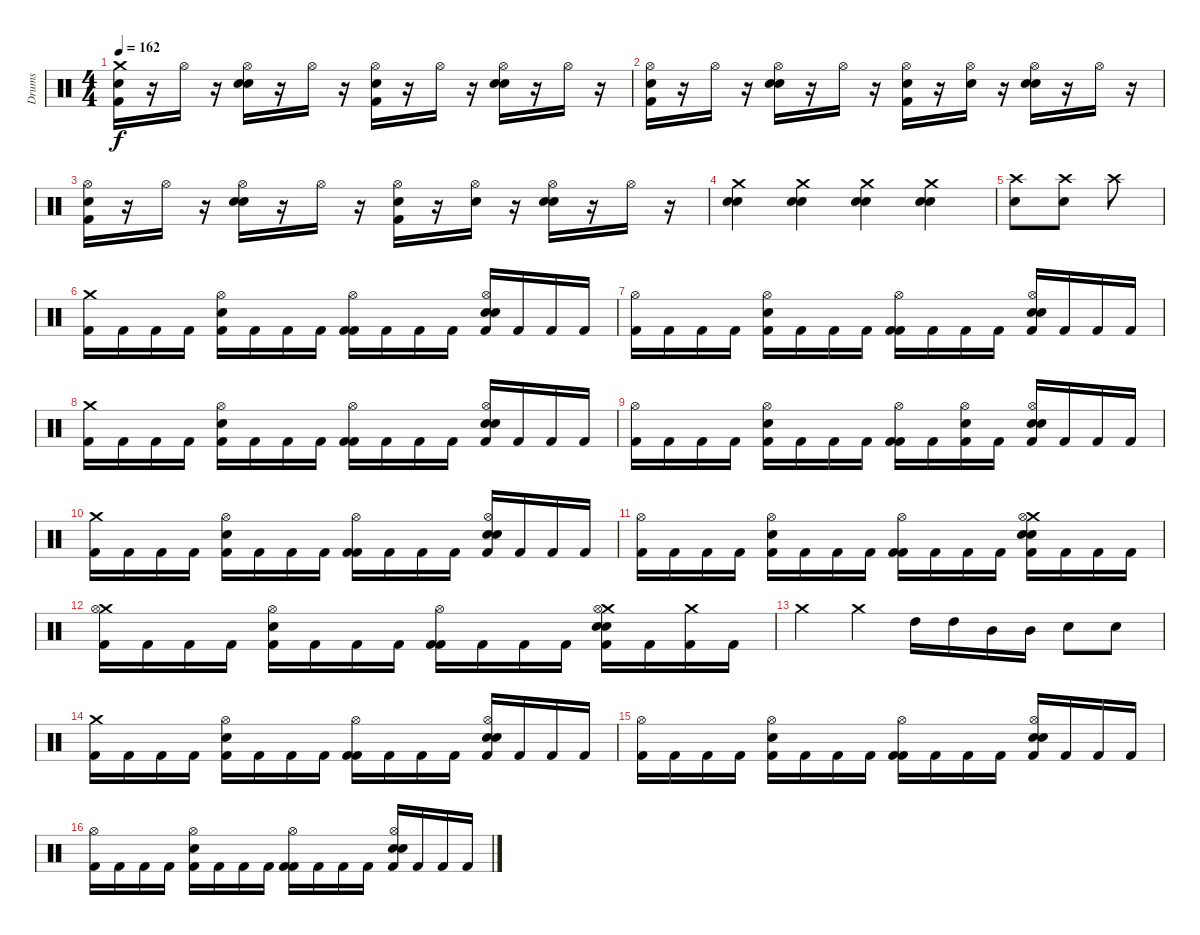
\track ("Drums" "Drums") {instrument percussion}
\staff {score}
\articulation defaults
\ts (4 4)
\tempo 162
\clef neutral
\ks c
("Crash medium (hit)" "Electric Snare (hit)" "Kick (hit) 2").16{dy f} r.16 "Hi-Hat (open)".16 r.16 ("Electric Snare (hit)" "Hi-Hat (open)" "Snare (hit) 2").16 r.16 "Hi-Hat (open)".16 r.16 ("Electric Snare (hit)" "Hi-Hat (open)" "Kick (hit) 2").16 r.16 "Hi-Hat (open)".16 r.16 ("Electric Snare (hit)" "Hi-Hat (open)" "Snare (hit) 2").16 r.16 "Hi-Hat (open)".16 r.16 |
("Electric Snare (hit)" "Hi-Hat (open)" "Kick (hit) 2").16 r.16 "Hi-Hat (open)".16 r.16 ("Electric Snare (hit)" "Hi-Hat (open)" "Snare (hit) 2").16 r.16 "Hi-Hat (open)".16 r.16 ("Electric Snare (hit)" "Hi-Hat (open)" "Kick (hit) 2").16 r.16 ("Electric Snare (hit)" "Hi-Hat (open)").16 r.16 ("Electric Snare (hit)" "Hi-Hat (open)" "Snare (hit) 2").16 r.16 "Hi-Hat (open)".16 r.16 |
("Electric Snare (hit)" "Hi-Hat (open)" "Kick (hit) 2").16 r.16 "Hi-Hat (open)".16 r.16 ("Electric Snare (hit)" "Hi-Hat (open)" "Snare (hit) 2").16 r.16 "Hi-Hat (open)".16 r.16 ("Electric Snare (hit)" "Hi-Hat (open)" "Kick (hit) 2").16 r.16 ("Hi-Hat (open)" "Electric Snare (hit)").16 r.16 ("Electric Snare (hit)" "Hi-Hat (open)" "Snare (hit) 2").16 r.16 "Hi-Hat (open)".16 r.16 |
("Crash medium (hit)" "Electric Snare (hit)" "Electric Snare (hit)").4 ("Crash medium (hit)" "Electric Snare (hit)" "Electric Snare (hit)").4 ("Crash medium (hit)" "Electric Snare (hit)" "Electric Snare (hit)").4 ("Crash medium (hit)" "Electric Snare (hit)" "Electric Snare (hit)").4 |
("Crash high (hit)" "Electric Snare (hit)").8 ("Crash high (hit)" "Electric Snare (hit)").8 "Crash high (hit)".8 |
("Crash medium (hit)" "Kick (hit) 2").16 "Kick (hit) 2".16 "Kick (hit) 2".16 "Kick (hit) 2".16 ("Kick (hit) 2" "Electric Snare (hit)" "Hi-Hat (open)").16 "Kick (hit) 2".16 "Kick (hit) 2".16 "Kick (hit) 2".16 ("Kick (hit) 2" "Hi-Hat (open)" "Kick (hit) 2").16 "Kick (hit) 2".16 "Kick (hit) 2".16 "Kick (hit) 2".16 ("Kick (hit) 2" "Electric Snare (hit)" "Hi-Hat (open)" "Snare (hit) 2").16 "Kick (hit) 2".16 "Kick (hit) 2".16 "Kick (hit) 2".16 |
("Hi-Hat (open)" "Kick (hit) 2").16 "Kick (hit) 2".16 "Kick (hit) 2".16 "Kick (hit) 2".16 ("Kick (hit) 2" "Electric Snare (hit)" "Hi-Hat (open)").16 "Kick (hit) 2".16 "Kick (hit) 2".16 "Kick (hit) 2".16 ("Kick (hit) 2" "Hi-Hat (open)" "Kick (hit) 2").16 "Kick (hit) 2".16 "Kick (hit) 2".16 "Kick (hit) 2".16 ("Kick (hit) 2" "Electric Snare (hit)" "Hi-Hat (open)" "Snare (hit) 2").16 "Kick (hit) 2".16 "Kick (hit) 2".16 "Kick (hit) 2".16 |
("Crash medium (hit)" "Kick (hit) 2").16 "Kick (hit) 2".16 "Kick (hit) 2".16 "Kick (hit) 2".16 ("Kick (hit) 2" "Electric Snare (hit)" "Hi-Hat (open)").16 "Kick (hit) 2".16 "Kick (hit) 2".16 "Kick (hit) 2".16 ("Kick (hit) 2" "Hi-Hat (open)" "Kick (hit) 2").16 "Kick (hit) 2".16 "Kick (hit) 2".16 "Kick (hit) 2".16 ("Kick (hit) 2" "Electric Snare (hit)" "Hi-Hat (open)" "Snare (hit) 2").16 "Kick (hit) 2".16 "Kick (hit) 2".16 "Kick (hit) 2".16 |
("Hi-Hat (open)" "Kick (hit) 2").16 "Kick (hit) 2".16 "Kick (hit) 2".16 "Kick (hit) 2".16 ("Kick (hit) 2" "Electric Snare (hit)" "Hi-Hat (open)").16 "Kick (hit) 2".16 "Kick (hit) 2".16 "Kick (hit) 2".16 ("Kick (hit) 2" "Hi-Hat (open)" "Kick (hit) 2").16 "Kick (hit) 2".16 ("Kick (hit) 2" "Electric Snare (hit)" "Hi-Hat (open)").16 "Kick (hit) 2".16 ("Kick (hit) 2" "Electric Snare (hit)" "Hi-Hat (open)" "Snare (hit) 2").16 "Kick (hit) 2".16 "Kick (hit) 2".16 "Kick (hit) 2".16 |
("Crash medium (hit)" "Kick (hit) 2").16 "Kick (hit) 2".16 "Kick (hit) 2".16 "Kick (hit) 2".16 ("Kick (hit) 2" "Electric Snare (hit)" "Hi-Hat (open)").16 "Kick (hit) 2".16 "Kick (hit) 2".16 "Kick (hit) 2".16 ("Kick (hit) 2" "Hi-Hat (open)" "Kick (hit) 2").16 "Kick (hit) 2".16 "Kick (hit) 2".16 "Kick (hit) 2".16 ("Kick (hit) 2" "Electric Snare (hit)" "Hi-Hat (open)" "Snare (hit) 2").16 "Kick (hit) 2".16 "Kick (hit) 2".16 "Kick (hit) 2".16 |
("Hi-Hat (open)" "Kick (hit) 2").16 "Kick (hit) 2".16 "Kick (hit) 2".16 "Kick (hit) 2".16 ("Kick (hit) 2" "Electric Snare (hit)" "Hi-Hat (open)").16 "Kick (hit) 2".16 "Kick (hit) 2".16 "Kick (hit) 2".16 ("Kick (hit) 2" "Hi-Hat (open)" "Kick (hit) 2").16 "Kick (hit) 2".16 "Kick (hit) 2".16 "Kick (hit) 2".16 ("Crash medium (hit)" "Kick (hit) 2" "Electric Snare (hit)" "Hi-Hat (open)" "Snare (hit) 2").16 "Kick (hit) 2".16 "Kick (hit) 2".16 "Kick (hit) 2".16 |
("Crash medium (hit)" "Hi-Hat (open)" "Kick (hit) 2").16 "Kick (hit) 2".16 "Kick (hit) 2".16 "Kick (hit) 2".16 ("Kick (hit) 2" "Electric Snare (hit)" "Hi-Hat (open)").16 "Kick (hit) 2".16 "Kick (hit) 2".16 "Kick (hit) 2".16 ("Kick (hit) 2" "Hi-Hat (open)" "Kick (hit) 2").16 "Kick (hit) 2".16 "Kick (hit) 2".16 "Kick (hit) 2".16 ("Crash medium (hit)" "Kick (hit) 2" "Electric Snare (hit)" "Hi-Hat (open)" "Snare (hit) 2").16 "Kick (hit) 2".16 ("Crash medium (hit)" "Kick (hit) 2").16 "Kick (hit) 2".16 |
"Crash medium (hit)".4 "Crash medium (hit)".4 "High Tom (hit)".16 "High Tom (hit)".16 "Mid Tom (hit)".16 "Mid Tom (hit)".16 "Electric Snare (hit)".8 "Electric Snare (hit)".8 |
("Crash medium (hit)" "Kick (hit) 2").16 "Kick (hit) 2".16 "Kick (hit) 2".16 "Kick (hit) 2".16 ("Kick (hit) 2" "Electric Snare (hit)" "Hi-Hat (open)").16 "Kick (hit) 2".16 "Kick (hit) 2".16 "Kick (hit) 2".16 ("Kick (hit) 2" "Hi-Hat (open)" "Kick (hit) 2").16 "Kick (hit) 2".16 "Kick (hit) 2".16 "Kick (hit) 2".16 ("Kick (hit) 2" "Electric Snare (hit)" "Hi-Hat (open)" "Snare (hit) 2").16 "Kick (hit) 2".16 "Kick (hit) 2".16 "Kick (hit) 2".16 |
("Hi-Hat (open)" "Kick (hit) 2").16 "Kick (hit) 2".16 "Kick (hit) 2".16 "Kick (hit) 2".16 ("Kick (hit) 2" "Electric Snare (hit)" "Hi-Hat (open)").16 "Kick (hit) 2".16 "Kick (hit) 2".16 "Kick (hit) 2".16 ("Kick (hit) 2" "Hi-Hat (open)" "Kick (hit) 2").16 "Kick (hit) 2".16 "Kick (hit) 2".16 "Kick (hit) 2".16 ("Kick (hit) 2" "Electric Snare (hit)" "Hi-Hat (open)" "Snare (hit) 2").16 "Kick (hit) 2".16 "Kick (hit) 2".16 "Kick (hit) 2".16 |
("Hi-Hat (open)" "Kick (hit) 2").16 "Kick (hit) 2".16 "Kick (hit) 2".16 "Kick (hit) 2".16 ("Kick (hit) 2" "Electric Snare (hit)" "Hi-Hat (open)").16 "Kick (hit) 2".16 "Kick (hit) 2".16 "Kick (hit) 2".16 ("Kick (hit) 2" "Hi-Hat (open)" "Kick (hit) 2").16 "Kick (hit) 2".16 "Kick (hit) 2".16 "Kick (hit) 2".16 ("Kick (hit) 2" "Electric Snare (hit)" "Hi-Hat (open)" "Snare (hit) 2").16 "Kick (hit) 2".16 "Kick (hit) 2".16 "Kick (hit) 2".16
